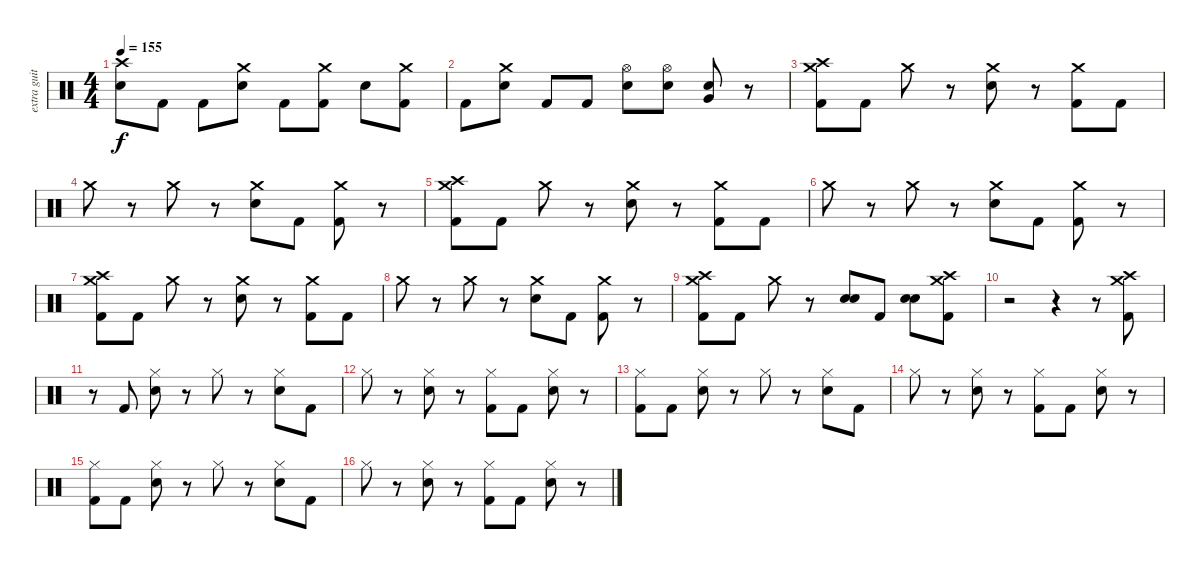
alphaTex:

\track ("extra guitar" "extra guit") {instrument percussion}
\staff {score}
\articulation defaults
\ts (4 4)
\tempo 155
\clef neutral
\ks c
("Crash high (hit)" "Electric Snare (hit)").8{dy f} "Kick (hit) 2".8 "Kick (hit) 2".8 ("Crash medium (hit)" "Electric Snare (hit)").8 "Kick (hit) 2".8 ("Crash medium (hit)" "Kick (hit) 2").8 "Electric Snare (hit)".8 ("Crash medium (hit)" "Kick (hit) 2").8 |
"Kick (hit) 2".8 ("Crash medium (hit)" "Electric Snare (hit)").8 "Kick (hit) 2".8 "Kick (hit) 2".8 ("Hi-Hat (open)" "Electric Snare (hit)").8 ("Hi-Hat (open)" "Electric Snare (hit)").8 ("Electric Snare (hit)" "Very Low Tom (hit)").8 r.8 |
("Crash medium (hit)" "Crash high (hit)" "Kick (hit) 2").8 "Kick (hit) 2".8 "Crash medium (hit)".8 r.8 ("Crash medium (hit)" "Electric Snare (hit)").8 r.8 ("Crash medium (hit)" "Kick (hit) 2").8 "Kick (hit) 2".8 |
"Crash medium (hit)".8 r.8 "Crash medium (hit)".8 r.8 ("Crash medium (hit)" "Electric Snare (hit)").8 "Kick (hit) 2".8 ("Crash medium (hit)" "Kick (hit) 2").8 r.8 |
("Crash medium (hit)" "Crash high (hit)" "Kick (hit) 2").8 "Kick (hit) 2".8 "Crash medium (hit)".8 r.8 ("Crash medium (hit)" "Electric Snare (hit)").8 r.8 ("Crash medium (hit)" "Kick (hit) 2").8 "Kick (hit) 2".8 |
"Crash medium (hit)".8 r.8 "Crash medium (hit)".8 r.8 ("Crash medium (hit)" "Electric Snare (hit)").8 "Kick (hit) 2".8 ("Crash medium (hit)" "Kick (hit) 2").8 r.8 |
("Crash medium (hit)" "Crash high (hit)" "Kick (hit) 2").8 "Kick (hit) 2".8 "Crash medium (hit)".8 r.8 ("Crash medium (hit)" "Electric Snare (hit)").8 r.8 ("Crash medium (hit)" "Kick (hit) 2").8 "Kick (hit) 2".8 |
"Crash medium (hit)".8 r.8 "Crash medium (hit)".8 r.8 ("Crash medium (hit)" "Electric Snare (hit)").8 "Kick (hit) 2".8 ("Crash medium (hit)" "Kick (hit) 2").8 r.8 |
("Crash medium (hit)" "Crash high (hit)" "Kick (hit) 2").8 "Kick (hit) 2".8 "Crash medium (hit)".8 r.8 ("Electric Snare (hit)" "Electric Snare (hit)").8 "Kick (hit) 2".8 ("Electric Snare (hit)" "Electric Snare (hit)").8 ("Crash medium (hit)" "Crash high (hit)" "Kick (hit) 2").8 |
r.2 r.4 r.8 ("Crash medium (hit)" "Crash high (hit)" "Kick (hit) 2").8 |
r.8 "Kick (hit) 2".8 ("Hi-Hat (closed)" "Electric Snare (hit)").8 r.8 "Hi-Hat (closed)".8 r.8 ("Hi-Hat (closed)" "Electric Snare (hit)").8 "Kick (hit) 2".8 |
"Hi-Hat (closed)".8 r.8 ("Hi-Hat (closed)" "Electric Snare (hit)").8 r.8 ("Hi-Hat (closed)" "Kick (hit) 2").8 "Kick (hit) 2".8 ("Hi-Hat (closed)" "Electric Snare (hit)").8 r.8 |
("Hi-Hat (closed)" "Kick (hit) 2").8 "Kick (hit) 2".8 ("Hi-Hat (closed)" "Electric Snare (hit)").8 r.8 "Hi-Hat (closed)".8 r.8 ("Hi-Hat (closed)" "Electric Snare (hit)").8 "Kick (hit) 2".8 |
"Hi-Hat (closed)".8 r.8 ("Hi-Hat (closed)" "Electric Snare (hit)").8 r.8 ("Hi-Hat (closed)" "Kick (hit) 2").8 "Kick (hit) 2".8 ("Hi-Hat (closed)" "Electric Snare (hit)").8 r.8 |
("Hi-Hat (closed)" "Kick (hit) 2").8 "Kick (hit) 2".8 ("Hi-Hat (closed)" "Electric Snare (hit)").8 r.8 "Hi-Hat (closed)".8 r.8 ("Hi-Hat (closed)" "Electric Snare (hit)").8 "Kick (hit) 2".8 |
"Hi-Hat (closed)".8 r.8 ("Hi-Hat (closed)" "Electric Snare (hit)").8 r.8 ("Hi-Hat (closed)" "Kick (hit) 2").8 "Kick (hit) 2".8 ("Hi-Hat (closed)" "Electric Snare (hit)").8 r.8
